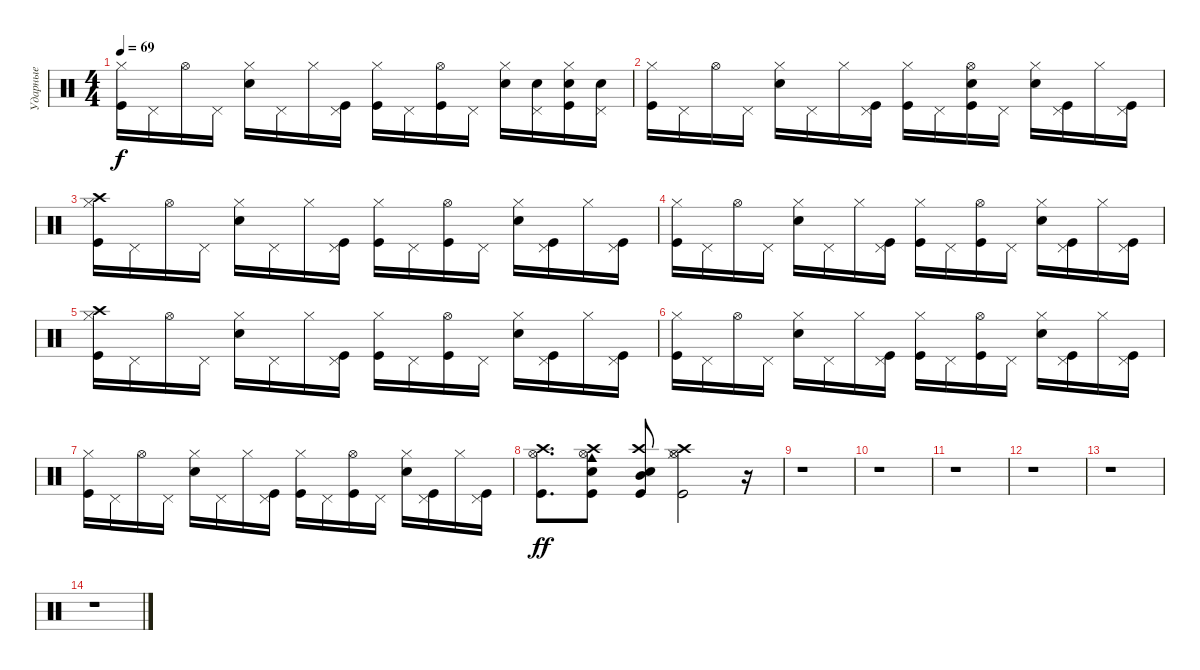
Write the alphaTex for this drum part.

\track ("Ударные" "Ударные") {instrument percussion}
\staff {score}
\articulation defaults
\ts (4 4)
\tempo 69
\clef neutral
\ks c
("Kick (hit)" "Hi-Hat (closed)").16{dy f} "Pedal Hi-Hat (hit)".16 "Hi-Hat (open)".16 "Pedal Hi-Hat (hit)".16 ("Snare (hit) 2" "Hi-Hat (closed)").16 "Pedal Hi-Hat (hit)".16 "Hi-Hat (closed)".16 ("Pedal Hi-Hat (hit)" "Kick (hit)").16 ("Kick (hit)" "Hi-Hat (closed)").16 "Pedal Hi-Hat (hit)".16 ("Kick (hit)" "Hi-Hat (open)").16 "Pedal Hi-Hat (hit)".16 ("Snare (hit) 2" "Hi-Hat (closed)").16 ("Pedal Hi-Hat (hit)" "Snare (hit) 2").16 ("Hi-Hat (closed)" "Snare (hit) 2" "Kick (hit)").16 ("Pedal Hi-Hat (hit)" "Snare (hit) 2").16 |
("Kick (hit)" "Hi-Hat (closed)").16 "Pedal Hi-Hat (hit)".16 "Hi-Hat (open)".16 "Pedal Hi-Hat (hit)".16 ("Snare (hit) 2" "Hi-Hat (closed)").16 "Pedal Hi-Hat (hit)".16 "Hi-Hat (closed)".16 ("Pedal Hi-Hat (hit)" "Kick (hit)").16 ("Kick (hit)" "Hi-Hat (closed)").16 "Pedal Hi-Hat (hit)".16 ("Kick (hit)" "Hi-Hat (open)" "Snare (hit) 2").16 "Pedal Hi-Hat (hit)".16 ("Snare (hit) 2" "Hi-Hat (closed)").16 ("Pedal Hi-Hat (hit)" "Kick (hit)").16 "Hi-Hat (closed)".16 ("Pedal Hi-Hat (hit)" "Kick (hit)").16 |
("Kick (hit)" "Hi-Hat (closed)" "Crash high (hit)").16 "Pedal Hi-Hat (hit)".16 "Hi-Hat (open)".16 "Pedal Hi-Hat (hit)".16 ("Snare (hit) 2" "Hi-Hat (closed)").16 "Pedal Hi-Hat (hit)".16 "Hi-Hat (closed)".16 ("Pedal Hi-Hat (hit)" "Kick (hit)").16 ("Kick (hit)" "Hi-Hat (closed)").16 "Pedal Hi-Hat (hit)".16 ("Kick (hit)" "Hi-Hat (open)").16 "Pedal Hi-Hat (hit)".16 ("Snare (hit) 2" "Hi-Hat (closed)").16 ("Pedal Hi-Hat (hit)" "Kick (hit)").16 "Hi-Hat (closed)".16 ("Pedal Hi-Hat (hit)" "Kick (hit)").16 |
("Kick (hit)" "Hi-Hat (closed)").16 "Pedal Hi-Hat (hit)".16 "Hi-Hat (open)".16 "Pedal Hi-Hat (hit)".16 ("Snare (hit) 2" "Hi-Hat (closed)").16 "Pedal Hi-Hat (hit)".16 "Hi-Hat (closed)".16 ("Pedal Hi-Hat (hit)" "Kick (hit)").16 ("Kick (hit)" "Hi-Hat (closed)").16 "Pedal Hi-Hat (hit)".16 ("Kick (hit)" "Hi-Hat (open)").16 "Pedal Hi-Hat (hit)".16 ("Snare (hit) 2" "Hi-Hat (closed)").16 ("Pedal Hi-Hat (hit)" "Kick (hit)").16 "Hi-Hat (closed)".16 ("Pedal Hi-Hat (hit)" "Kick (hit)").16 |
("Kick (hit)" "Hi-Hat (closed)" "Crash high (hit)").16 "Pedal Hi-Hat (hit)".16 "Hi-Hat (open)".16 "Pedal Hi-Hat (hit)".16 ("Snare (hit) 2" "Hi-Hat (closed)").16 "Pedal Hi-Hat (hit)".16 "Hi-Hat (closed)".16 ("Pedal Hi-Hat (hit)" "Kick (hit)").16 ("Kick (hit)" "Hi-Hat (closed)").16 "Pedal Hi-Hat (hit)".16 ("Kick (hit)" "Hi-Hat (open)").16 "Pedal Hi-Hat (hit)".16 ("Snare (hit) 2" "Hi-Hat (closed)").16 ("Pedal Hi-Hat (hit)" "Kick (hit)").16 "Hi-Hat (closed)".16 ("Pedal Hi-Hat (hit)" "Kick (hit)").16 |
("Kick (hit)" "Hi-Hat (closed)").16 "Pedal Hi-Hat (hit)".16 "Hi-Hat (open)".16 "Pedal Hi-Hat (hit)".16 ("Snare (hit) 2" "Hi-Hat (closed)").16 "Pedal Hi-Hat (hit)".16 "Hi-Hat (closed)".16 ("Pedal Hi-Hat (hit)" "Kick (hit)").16 ("Kick (hit)" "Hi-Hat (closed)").16 "Pedal Hi-Hat (hit)".16 ("Kick (hit)" "Hi-Hat (open)").16 "Pedal Hi-Hat (hit)".16 ("Snare (hit) 2" "Hi-Hat (closed)").16 ("Pedal Hi-Hat (hit)" "Kick (hit)").16 "Hi-Hat (closed)".16 ("Pedal Hi-Hat (hit)" "Kick (hit)").16 |
("Kick (hit)" "Hi-Hat (closed)").16 "Pedal Hi-Hat (hit)".16 "Hi-Hat (open)".16 "Pedal Hi-Hat (hit)".16 ("Snare (hit) 2" "Hi-Hat (closed)").16 "Pedal Hi-Hat (hit)".16 "Hi-Hat (closed)".16 ("Pedal Hi-Hat (hit)" "Kick (hit)").16 ("Kick (hit)" "Hi-Hat (closed)").16 "Pedal Hi-Hat (hit)".16 ("Kick (hit)" "Hi-Hat (open)").16 "Pedal Hi-Hat (hit)".16 ("Snare (hit) 2" "Hi-Hat (closed)").16 ("Pedal Hi-Hat (hit)" "Kick (hit)").16 "Hi-Hat (closed)".16 ("Pedal Hi-Hat (hit)" "Kick (hit)").16 |
("Kick (hit)" "Hi-Hat (open)" "Crash high (hit)").8{d dy ff} ("Kick (hit)" "Snare (hit) 2" "Crash high (hit)" "Hi-Hat (open)" "Cowbell medium (hit)").8 ("Kick (hit)" "Mid Tom (hit)" "Snare (hit) 2" "Crash high (hit)").8 ("Kick (hit)" "Hi-Hat (open)" "Hi-Hat (closed)" "Crash high (hit)").2 r.16 |
r.1 |
r.1 |
r.1 |
r.1 |
r.1 |
r.1
